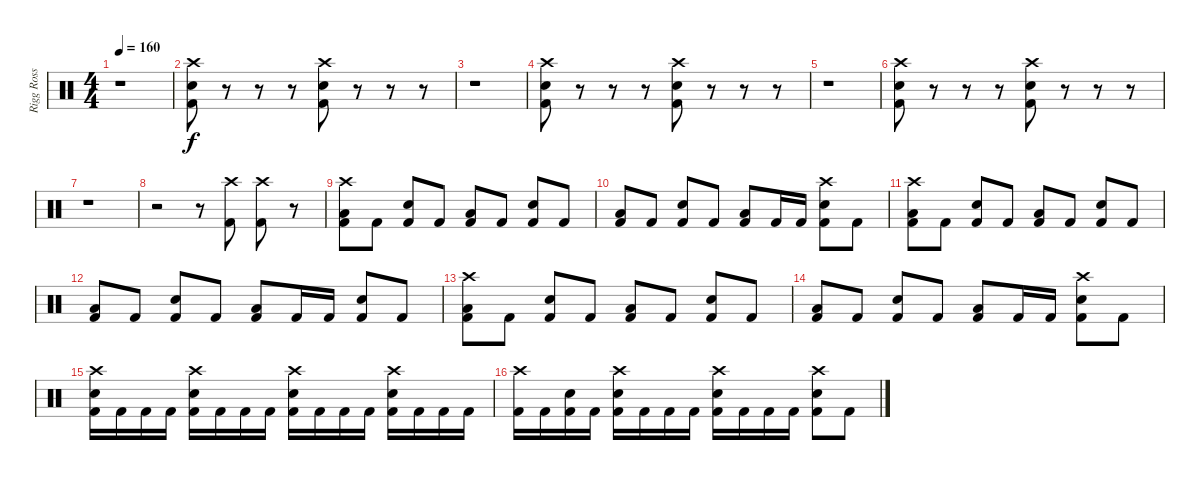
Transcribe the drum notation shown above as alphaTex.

\track ("Rigg Ross" "Rigg Ross") {instrument percussion}
\staff {score}
\articulation defaults
\ts (4 4)
\tempo 160
\clef neutral
\ks c
r.1{dy f} |
("Crash high (hit)" "Electric Snare (hit)" "Kick (hit) 2").8 r.8 r.8 r.8 ("Crash high (hit)" "Electric Snare (hit)" "Kick (hit) 2").8 r.8 r.8 r.8 |
r.1 |
("Crash high (hit)" "Electric Snare (hit)" "Kick (hit) 2").8 r.8 r.8 r.8 ("Crash high (hit)" "Electric Snare (hit)" "Kick (hit) 2").8 r.8 r.8 r.8 |
r.1 |
("Crash high (hit)" "Electric Snare (hit)" "Kick (hit) 2").8 r.8 r.8 r.8 ("Crash high (hit)" "Electric Snare (hit)" "Kick (hit) 2").8 r.8 r.8 r.8 |
r.1 |
r.2 r.8 ("Crash high (hit)" "Kick (hit) 2").8 ("Crash high (hit)" "Kick (hit) 2").8 r.8 |
("Crash high (hit)" "Low Tom (hit)" "Kick (hit) 2").8 "Kick (hit) 2".8 ("Electric Snare (hit)" "Kick (hit) 2").8 "Kick (hit) 2".8 ("Low Tom (hit)" "Kick (hit) 2").8 "Kick (hit) 2".8 ("Electric Snare (hit)" "Kick (hit) 2").8 "Kick (hit) 2".8 |
("Low Tom (hit)" "Kick (hit) 2").8 "Kick (hit) 2".8 ("Electric Snare (hit)" "Kick (hit) 2").8 "Kick (hit) 2".8 ("Low Tom (hit)" "Kick (hit) 2").8 "Kick (hit) 2".16 "Kick (hit) 2".16 ("Crash high (hit)" "Electric Snare (hit)" "Kick (hit) 2").8 "Kick (hit) 2".8 |
("Crash high (hit)" "Low Tom (hit)" "Kick (hit) 2").8 "Kick (hit) 2".8 ("Electric Snare (hit)" "Kick (hit) 2").8 "Kick (hit) 2".8 ("Low Tom (hit)" "Kick (hit) 2").8 "Kick (hit) 2".8 ("Electric Snare (hit)" "Kick (hit) 2").8 "Kick (hit) 2".8 |
("Low Tom (hit)" "Kick (hit) 2").8 "Kick (hit) 2".8 ("Electric Snare (hit)" "Kick (hit) 2").8 "Kick (hit) 2".8 ("Low Tom (hit)" "Kick (hit) 2").8 "Kick (hit) 2".16 "Kick (hit) 2".16 ("Electric Snare (hit)" "Kick (hit) 2").8 "Kick (hit) 2".8 |
("Crash high (hit)" "Low Tom (hit)" "Kick (hit) 2").8 "Kick (hit) 2".8 ("Electric Snare (hit)" "Kick (hit) 2").8 "Kick (hit) 2".8 ("Low Tom (hit)" "Kick (hit) 2").8 "Kick (hit) 2".8 ("Electric Snare (hit)" "Kick (hit) 2").8 "Kick (hit) 2".8 |
("Low Tom (hit)" "Kick (hit) 2").8 "Kick (hit) 2".8 ("Electric Snare (hit)" "Kick (hit) 2").8 "Kick (hit) 2".8 ("Low Tom (hit)" "Kick (hit) 2").8 "Kick (hit) 2".16 "Kick (hit) 2".16 ("Crash high (hit)" "Electric Snare (hit)" "Kick (hit) 2").8 "Kick (hit) 2".8 |
("Crash high (hit)" "Electric Snare (hit)" "Kick (hit) 2").16 "Kick (hit) 2".16 "Kick (hit) 2".16 "Kick (hit) 2".16 ("Crash high (hit)" "Electric Snare (hit)" "Kick (hit) 2").16 "Kick (hit) 2".16 "Kick (hit) 2".16 "Kick (hit) 2".16 ("Crash high (hit)" "Electric Snare (hit)" "Kick (hit) 2").16 "Kick (hit) 2".16 "Kick (hit) 2".16 "Kick (hit) 2".16 ("Crash high (hit)" "Electric Snare (hit)" "Kick (hit) 2").16 "Kick (hit) 2".16 "Kick (hit) 2".16 "Kick (hit) 2".16 |
("Crash high (hit)" "Kick (hit) 2").16 "Kick (hit) 2".16 ("Electric Snare (hit)" "Kick (hit) 2").16 "Kick (hit) 2".16 ("Crash high (hit)" "Electric Snare (hit)" "Kick (hit) 2").16 "Kick (hit) 2".16 "Kick (hit) 2".16 "Kick (hit) 2".16 ("Crash high (hit)" "Electric Snare (hit)" "Kick (hit) 2").16 "Kick (hit) 2".16 "Kick (hit) 2".16 "Kick (hit) 2".16 ("Crash high (hit)" "Electric Snare (hit)" "Kick (hit) 2").8 "Kick (hit) 2".8
